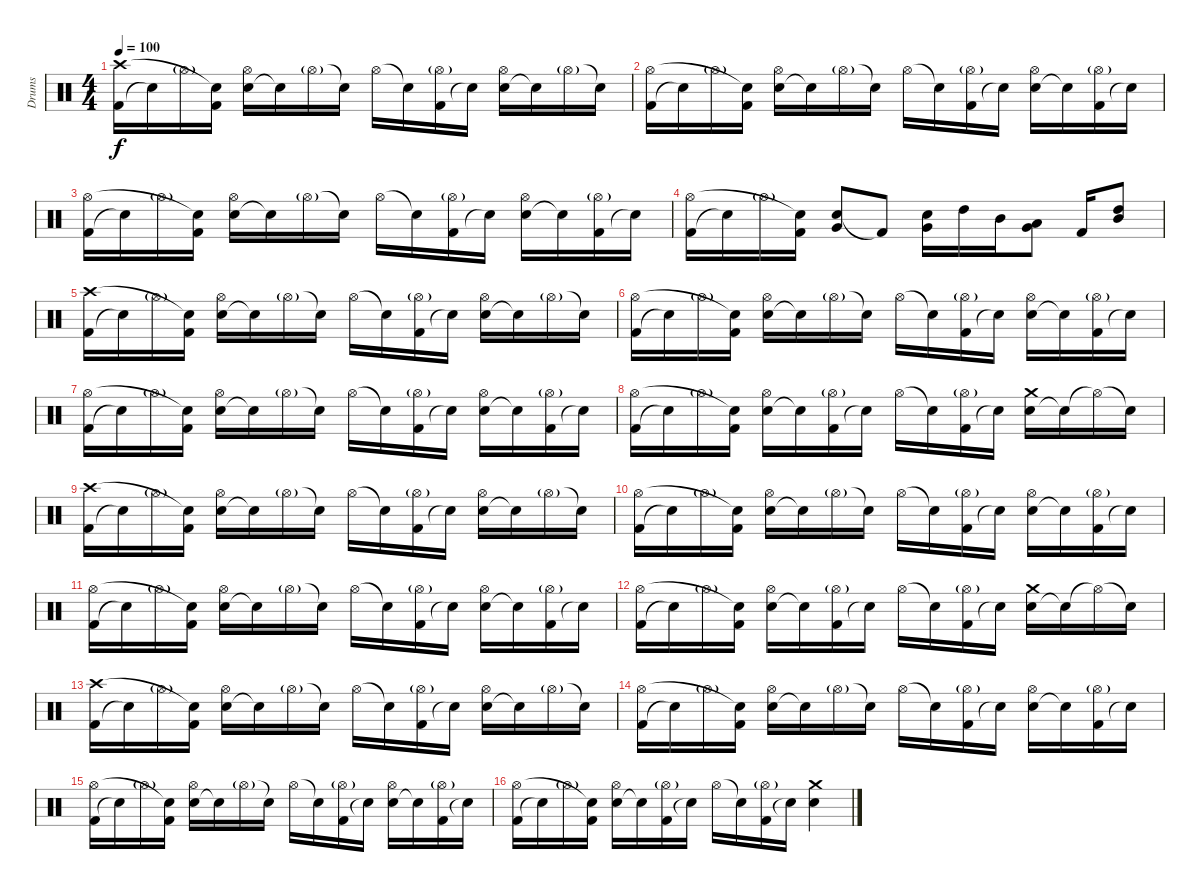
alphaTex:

\track ("Drums" "Drums") {instrument percussion}
\staff {score}
\articulation defaults
\ts (4 4)
\tempo 100
\clef neutral
\ks c
("Kick (hit) 2" "Crash high (hit)").16{dy f} "Snare (hit)"{t}.16 "Hi-Hat (open)"{g}.16 ("Kick (hit) 2" "Snare (hit)"{t}).16 ("Snare (hit) 2" "Hi-Hat (open)").16 "Snare (hit)"{t}.16 "Hi-Hat (open)"{g}.16 "Snare (hit)"{t}.16 "Hi-Hat (open)".16 "Snare (hit)"{t}.16 ("Kick (hit) 2" "Hi-Hat (open)"{g}).16 "Snare (hit)"{t}.16 ("Snare (hit) 2" "Hi-Hat (open)").16 "Snare (hit)"{t}.16 "Hi-Hat (open)"{g}.16 "Snare (hit)"{t}.16 |
("Kick (hit) 2" "Hi-Hat (open)").16 "Snare (hit)"{t}.16 "Hi-Hat (open)"{g}.16 ("Kick (hit) 2" "Snare (hit)"{t}).16 ("Snare (hit) 2" "Hi-Hat (open)").16 "Snare (hit)"{t}.16 "Hi-Hat (open)"{g}.16 "Snare (hit)"{t}.16 "Hi-Hat (open)".16 "Snare (hit)"{t}.16 ("Kick (hit) 2" "Hi-Hat (open)"{g}).16 "Snare (hit)"{t}.16 ("Snare (hit) 2" "Hi-Hat (open)").16 "Snare (hit)"{t}.16 ("Kick (hit) 2" "Hi-Hat (open)"{g}).16 "Snare (hit)"{t}.16 |
("Kick (hit) 2" "Hi-Hat (open)").16 "Snare (hit)"{t}.16 "Hi-Hat (open)"{g}.16 ("Kick (hit) 2" "Snare (hit)"{t}).16 ("Snare (hit) 2" "Hi-Hat (open)").16 "Snare (hit)"{t}.16 "Hi-Hat (open)"{g}.16 "Snare (hit)"{t}.16 "Hi-Hat (open)".16 "Snare (hit)"{t}.16 ("Kick (hit) 2" "Hi-Hat (open)"{g}).16 "Snare (hit)"{t}.16 ("Snare (hit) 2" "Hi-Hat (open)").16 "Snare (hit)"{t}.16 ("Kick (hit) 2" "Hi-Hat (open)"{g}).16 "Snare (hit)"{t}.16 |
("Kick (hit) 2" "Hi-Hat (open)").16 "Snare (hit)"{t}.16 "Hi-Hat (open)"{g}.16 ("Kick (hit) 2" "Snare (hit)"{t}).16 ("Snare (hit) 2" "Very Low Tom (hit)").8 "Kick (hit) 2"{t}.8 ("Snare (hit) 2" "Very Low Tom (hit)").16 "High Tom (hit)".16 "Mid Tom (hit)".16 ("Very Low Tom (hit)" "Low Tom (hit)").8 "Kick (hit) 2".16 ("High Tom (hit)" "Mid Tom (hit)").8 |
("Kick (hit) 2" "Crash high (hit)").16 "Snare (hit)"{t}.16 "Hi-Hat (open)"{g}.16 ("Kick (hit) 2" "Snare (hit)"{t}).16 ("Snare (hit) 2" "Hi-Hat (open)").16 "Snare (hit)"{t}.16 "Hi-Hat (open)"{g}.16 "Snare (hit)"{t}.16 "Hi-Hat (open)".16 "Snare (hit)"{t}.16 ("Kick (hit) 2" "Hi-Hat (open)"{g}).16 "Snare (hit)"{t}.16 ("Snare (hit) 2" "Hi-Hat (open)").16 "Snare (hit)"{t}.16 "Hi-Hat (open)"{g}.16 "Snare (hit)"{t}.16 |
("Kick (hit) 2" "Hi-Hat (open)").16 "Snare (hit)"{t}.16 "Hi-Hat (open)"{g}.16 ("Kick (hit) 2" "Snare (hit)"{t}).16 ("Snare (hit) 2" "Hi-Hat (open)").16 "Snare (hit)"{t}.16 "Hi-Hat (open)"{g}.16 "Snare (hit)"{t}.16 "Hi-Hat (open)".16 "Snare (hit)"{t}.16 ("Kick (hit) 2" "Hi-Hat (open)"{g}).16 "Snare (hit)"{t}.16 ("Snare (hit) 2" "Hi-Hat (open)").16 "Snare (hit)"{t}.16 ("Kick (hit) 2" "Hi-Hat (open)"{g}).16 "Snare (hit)"{t}.16 |
("Kick (hit) 2" "Hi-Hat (open)").16 "Snare (hit)"{t}.16 "Hi-Hat (open)"{g}.16 ("Kick (hit) 2" "Snare (hit)"{t}).16 ("Snare (hit) 2" "Hi-Hat (open)").16 "Snare (hit)"{t}.16 "Hi-Hat (open)"{g}.16 "Snare (hit)"{t}.16 "Hi-Hat (open)".16 "Snare (hit)"{t}.16 ("Kick (hit) 2" "Hi-Hat (open)"{g}).16 "Snare (hit)"{t}.16 ("Snare (hit) 2" "Hi-Hat (open)").16 "Snare (hit)"{t}.16 ("Kick (hit) 2" "Hi-Hat (open)"{g}).16 "Snare (hit)"{t}.16 |
("Kick (hit) 2" "Hi-Hat (open)").16 "Snare (hit)"{t}.16 "Hi-Hat (open)"{g}.16 ("Kick (hit) 2" "Snare (hit)"{t}).16 ("Snare (hit) 2" "Hi-Hat (open)").16 "Snare (hit)"{t}.16 ("Kick (hit) 2" "Hi-Hat (open)"{g}).16 "Snare (hit)"{t}.16 "Hi-Hat (open)".16 "Snare (hit)"{t}.16 ("Kick (hit) 2" "Hi-Hat (open)"{g}).16 "Snare (hit)"{t}.16 ("Snare (hit) 2" "Crash medium (hit)").16 "Snare (hit)"{t}.16 "Hi-Hat (open)"{t}.16 "Snare (hit)"{t}.16 |
("Kick (hit) 2" "Crash high (hit)").16 "Snare (hit)"{t}.16 "Hi-Hat (open)"{g}.16 ("Kick (hit) 2" "Snare (hit)"{t}).16 ("Snare (hit) 2" "Hi-Hat (open)").16 "Snare (hit)"{t}.16 "Hi-Hat (open)"{g}.16 "Snare (hit)"{t}.16 "Hi-Hat (open)".16 "Snare (hit)"{t}.16 ("Kick (hit) 2" "Hi-Hat (open)"{g}).16 "Snare (hit)"{t}.16 ("Snare (hit) 2" "Hi-Hat (open)").16 "Snare (hit)"{t}.16 "Hi-Hat (open)"{g}.16 "Snare (hit)"{t}.16 |
("Kick (hit) 2" "Hi-Hat (open)").16 "Snare (hit)"{t}.16 "Hi-Hat (open)"{g}.16 ("Kick (hit) 2" "Snare (hit)"{t}).16 ("Snare (hit) 2" "Hi-Hat (open)").16 "Snare (hit)"{t}.16 "Hi-Hat (open)"{g}.16 "Snare (hit)"{t}.16 "Hi-Hat (open)".16 "Snare (hit)"{t}.16 ("Kick (hit) 2" "Hi-Hat (open)"{g}).16 "Snare (hit)"{t}.16 ("Snare (hit) 2" "Hi-Hat (open)").16 "Snare (hit)"{t}.16 ("Kick (hit) 2" "Hi-Hat (open)"{g}).16 "Snare (hit)"{t}.16 |
("Kick (hit) 2" "Hi-Hat (open)").16 "Snare (hit)"{t}.16 "Hi-Hat (open)"{g}.16 ("Kick (hit) 2" "Snare (hit)"{t}).16 ("Snare (hit) 2" "Hi-Hat (open)").16 "Snare (hit)"{t}.16 "Hi-Hat (open)"{g}.16 "Snare (hit)"{t}.16 "Hi-Hat (open)".16 "Snare (hit)"{t}.16 ("Kick (hit) 2" "Hi-Hat (open)"{g}).16 "Snare (hit)"{t}.16 ("Snare (hit) 2" "Hi-Hat (open)").16 "Snare (hit)"{t}.16 ("Kick (hit) 2" "Hi-Hat (open)"{g}).16 "Snare (hit)"{t}.16 |
("Kick (hit) 2" "Hi-Hat (open)").16 "Snare (hit)"{t}.16 "Hi-Hat (open)"{g}.16 ("Kick (hit) 2" "Snare (hit)"{t}).16 ("Snare (hit) 2" "Hi-Hat (open)").16 "Snare (hit)"{t}.16 ("Kick (hit) 2" "Hi-Hat (open)"{g}).16 "Snare (hit)"{t}.16 "Hi-Hat (open)".16 "Snare (hit)"{t}.16 ("Kick (hit) 2" "Hi-Hat (open)"{g}).16 "Snare (hit)"{t}.16 ("Snare (hit) 2" "Crash medium (hit)").16 "Snare (hit)"{t}.16 "Hi-Hat (open)"{t}.16 "Snare (hit)"{t}.16 |
("Kick (hit) 2" "Crash high (hit)").16 "Snare (hit)"{t}.16 "Hi-Hat (open)"{g}.16 ("Kick (hit) 2" "Snare (hit)"{t}).16 ("Snare (hit) 2" "Hi-Hat (open)").16 "Snare (hit)"{t}.16 "Hi-Hat (open)"{g}.16 "Snare (hit)"{t}.16 "Hi-Hat (open)".16 "Snare (hit)"{t}.16 ("Kick (hit) 2" "Hi-Hat (open)"{g}).16 "Snare (hit)"{t}.16 ("Snare (hit) 2" "Hi-Hat (open)").16 "Snare (hit)"{t}.16 "Hi-Hat (open)"{g}.16 "Snare (hit)"{t}.16 |
("Kick (hit) 2" "Hi-Hat (open)").16 "Snare (hit)"{t}.16 "Hi-Hat (open)"{g}.16 ("Kick (hit) 2" "Snare (hit)"{t}).16 ("Snare (hit) 2" "Hi-Hat (open)").16 "Snare (hit)"{t}.16 "Hi-Hat (open)"{g}.16 "Snare (hit)"{t}.16 "Hi-Hat (open)".16 "Snare (hit)"{t}.16 ("Kick (hit) 2" "Hi-Hat (open)"{g}).16 "Snare (hit)"{t}.16 ("Snare (hit) 2" "Hi-Hat (open)").16 "Snare (hit)"{t}.16 ("Kick (hit) 2" "Hi-Hat (open)"{g}).16 "Snare (hit)"{t}.16 |
("Kick (hit) 2" "Hi-Hat (open)").16 "Snare (hit)"{t}.16 "Hi-Hat (open)"{g}.16 ("Kick (hit) 2" "Snare (hit)"{t}).16 ("Snare (hit) 2" "Hi-Hat (open)").16 "Snare (hit)"{t}.16 "Hi-Hat (open)"{g}.16 "Snare (hit)"{t}.16 "Hi-Hat (open)".16 "Snare (hit)"{t}.16 ("Kick (hit) 2" "Hi-Hat (open)"{g}).16 "Snare (hit)"{t}.16 ("Snare (hit) 2" "Hi-Hat (open)").16 "Snare (hit)"{t}.16 ("Kick (hit) 2" "Hi-Hat (open)"{g}).16 "Snare (hit)"{t}.16 |
("Kick (hit) 2" "Hi-Hat (open)").16 "Snare (hit)"{t}.16 "Hi-Hat (open)"{g}.16 ("Kick (hit) 2" "Snare (hit)"{t}).16 ("Snare (hit) 2" "Hi-Hat (open)").16 "Snare (hit)"{t}.16 ("Kick (hit) 2" "Hi-Hat (open)"{g}).16 "Snare (hit)"{t}.16 "Hi-Hat (open)".16 "Snare (hit)"{t}.16 ("Kick (hit) 2" "Hi-Hat (open)"{g}).16 "Snare (hit)"{t}.16 ("Snare (hit) 2" "Crash medium (hit)").4
